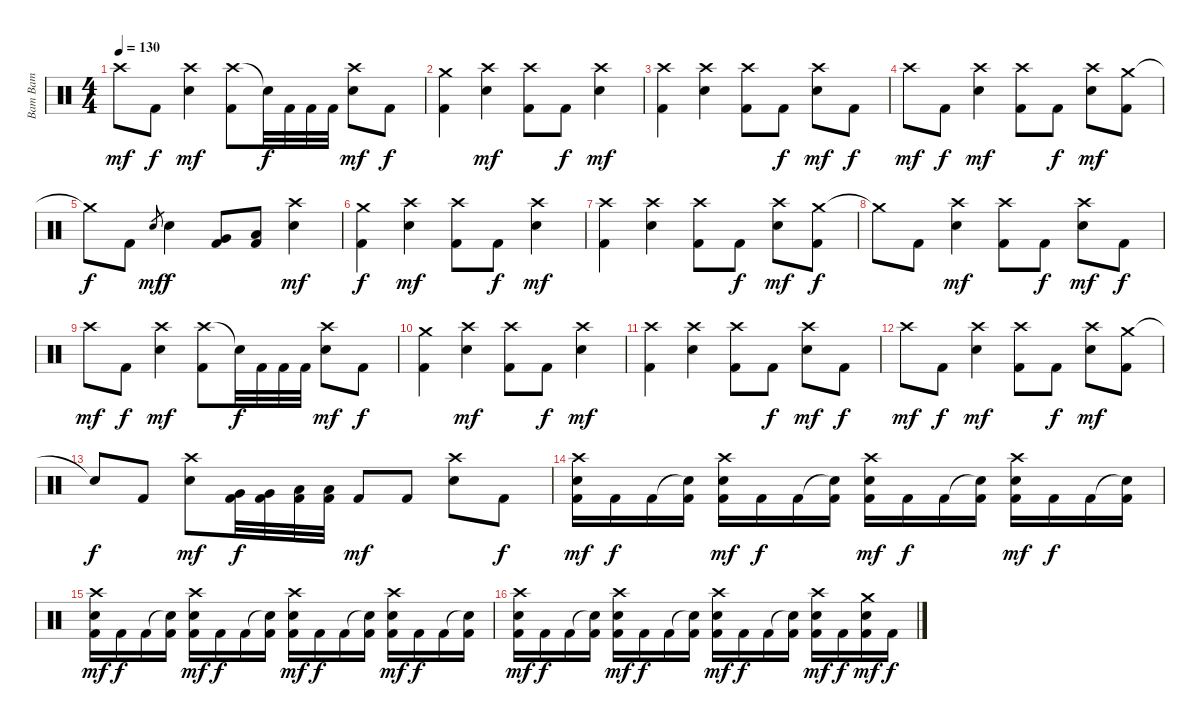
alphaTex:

\track ("Bam Bam" "Bam Bam") {instrument percussion}
\staff {score}
\articulation defaults
\ts (4 4)
\tempo 130
\clef neutral
\ks c "Crash high (hit)".8{dy mf} "Kick (hit) 2".8{dy f}
("Crash high (hit)" "Electric Snare (hit)").4{dy mf} ("Crash high (hit)" "Kick (hit) 2").8 "Snare (hit)"{t}.32{dy f} "Kick (hit) 2".32 "Kick (hit) 2".32 "Kick (hit) 2".32 ("Crash high (hit)" "Electric Snare (hit)").8{dy mf} "Kick (hit) 2".8{dy f} |
("Crash medium (hit)" "Kick (hit) 2").4 ("Crash high (hit)" "Electric Snare (hit)").4{dy mf} ("Crash high (hit)" "Kick (hit) 2").8 "Kick (hit) 2".8{dy f} ("Crash high (hit)" "Electric Snare (hit)").4{dy mf} |
("Crash high (hit)" "Kick (hit) 2").4 ("Crash high (hit)" "Electric Snare (hit)").4 ("Crash high (hit)" "Kick (hit) 2").8 "Kick (hit) 2".8{dy f} ("Crash high (hit)" "Electric Snare (hit)").8{dy mf} "Kick (hit) 2".8{dy f} |
"Crash high (hit)".8{dy mf} "Kick (hit) 2".8{dy f} ("Crash high (hit)" "Electric Snare (hit)").4{dy mf} ("Crash high (hit)" "Kick (hit) 2").8 "Kick (hit) 2".8{dy f} ("Crash high (hit)" "Electric Snare (hit)").8{dy mf} ("Crash medium (hit)" "Kick (hit) 2").8 |
"Crash medium (hit)"{t}.8{dy f} "Kick (hit) 2".8 "Electric Snare (hit)".8{gr dy mf} "Electric Snare (hit)".4{dy f} ("Very Low Tom (hit)" "Kick (hit) 2").8 ("Low Floor Tom (hit)" "Kick (hit) 2").8 ("Crash high (hit)" "Electric Snare (hit)").4{dy mf} |
("Crash medium (hit)" "Kick (hit) 2").4{dy f} ("Crash high (hit)" "Electric Snare (hit)").4{dy mf} ("Crash high (hit)" "Kick (hit) 2").8 "Kick (hit) 2".8{dy f} ("Crash high (hit)" "Electric Snare (hit)").4{dy mf} |
("Crash high (hit)" "Kick (hit) 2").4 ("Crash high (hit)" "Electric Snare (hit)").4 ("Crash high (hit)" "Kick (hit) 2").8 "Kick (hit) 2".8{dy f} ("Crash high (hit)" "Electric Snare (hit)").8{dy mf} ("Crash medium (hit)" "Kick (hit) 2").8{dy f} |
"Crash medium (hit)"{t}.8 "Kick (hit) 2".8 ("Crash high (hit)" "Electric Snare (hit)").4{dy mf} ("Crash high (hit)" "Kick (hit) 2").8 "Kick (hit) 2".8{dy f} ("Crash high (hit)" "Electric Snare (hit)").8{dy mf} "Kick (hit) 2".8{dy f} |
"Crash high (hit)".8{dy mf} "Kick (hit) 2".8{dy f} ("Crash high (hit)" "Electric Snare (hit)").4{dy mf} ("Crash high (hit)" "Kick (hit) 2").8 "Snare (hit)"{t}.32{dy f} "Kick (hit) 2".32 "Kick (hit) 2".32 "Kick (hit) 2".32 ("Crash high (hit)" "Electric Snare (hit)").8{dy mf} "Kick (hit) 2".8{dy f} |
("Crash medium (hit)" "Kick (hit) 2").4 ("Crash high (hit)" "Electric Snare (hit)").4{dy mf} ("Crash high (hit)" "Kick (hit) 2").8 "Kick (hit) 2".8{dy f} ("Crash high (hit)" "Electric Snare (hit)").4{dy mf} |
("Crash high (hit)" "Kick (hit) 2").4 ("Crash high (hit)" "Electric Snare (hit)").4 ("Crash high (hit)" "Kick (hit) 2").8 "Kick (hit) 2".8{dy f} ("Crash high (hit)" "Electric Snare (hit)").8{dy mf} "Kick (hit) 2".8{dy f} |
"Crash high (hit)".8{dy mf} "Kick (hit) 2".8{dy f} ("Crash high (hit)" "Electric Snare (hit)").4{dy mf} ("Crash high (hit)" "Kick (hit) 2").8 "Kick (hit) 2".8{dy f} ("Crash high (hit)" "Electric Snare (hit)").8{dy mf} ("Crash medium (hit)" "Kick (hit) 2").8 |
"Snare (hit)"{t}.8{dy f} "Kick (hit) 2".8 ("Crash high (hit)" "Electric Snare (hit)").8{dy mf} ("Very Low Tom (hit)" "Kick (hit) 2").32{dy f} ("Very Low Tom (hit)" "Kick (hit) 2").32 ("Low Floor Tom (hit)" "Kick (hit) 2").32 ("Low Floor Tom (hit)" "Kick (hit) 2").32 "Kick (hit) 2".8{dy mf} "Kick (hit) 2".8 ("Crash high (hit)" "Electric Snare (hit)").8 "Kick (hit) 2".8{dy f} |
("Crash high (hit)" "Electric Snare (hit)" "Kick (hit) 2").16{dy mf} "Kick (hit) 2".16{dy f} "Kick (hit) 2".16 ("Snare (hit)"{t} "Kick (hit) 2").16 ("Crash high (hit)" "Electric Snare (hit)" "Kick (hit) 2").16{dy mf} "Kick (hit) 2".16{dy f} "Kick (hit) 2".16 ("Snare (hit)"{t} "Kick (hit) 2").16 ("Crash high (hit)" "Electric Snare (hit)" "Kick (hit) 2").16{dy mf} "Kick (hit) 2".16{dy f} "Kick (hit) 2".16 ("Snare (hit)"{t} "Kick (hit) 2").16 ("Crash high (hit)" "Electric Snare (hit)" "Kick (hit) 2").16{dy mf} "Kick (hit) 2".16{dy f} "Kick (hit) 2".16 ("Snare (hit)"{t} "Kick (hit) 2").16 |
("Crash high (hit)" "Electric Snare (hit)" "Kick (hit) 2").16{dy mf} "Kick (hit) 2".16{dy f} "Kick (hit) 2".16 ("Snare (hit)"{t} "Kick (hit) 2").16 ("Crash high (hit)" "Electric Snare (hit)" "Kick (hit) 2").16{dy mf} "Kick (hit) 2".16{dy f} "Kick (hit) 2".16 ("Snare (hit)"{t} "Kick (hit) 2").16 ("Crash high (hit)" "Electric Snare (hit)" "Kick (hit) 2").16{dy mf} "Kick (hit) 2".16{dy f} "Kick (hit) 2".16 ("Snare (hit)"{t} "Kick (hit) 2").16 ("Crash high (hit)" "Electric Snare (hit)" "Kick (hit) 2").16{dy mf} "Kick (hit) 2".16{dy f} "Kick (hit) 2".16 ("Snare (hit)"{t} "Kick (hit) 2").16 |
("Crash high (hit)" "Electric Snare (hit)" "Kick (hit) 2").16{dy mf} "Kick (hit) 2".16{dy f} "Kick (hit) 2".16 ("Snare (hit)"{t} "Kick (hit) 2").16 ("Crash high (hit)" "Electric Snare (hit)" "Kick (hit) 2").16{dy mf} "Kick (hit) 2".16{dy f} "Kick (hit) 2".16 ("Snare (hit)"{t} "Kick (hit) 2").16 ("Crash high (hit)" "Electric Snare (hit)" "Kick (hit) 2").16{dy mf} "Kick (hit) 2".16{dy f} "Kick (hit) 2".16 ("Snare (hit)"{t} "Kick (hit) 2").16 ("Crash high (hit)" "Electric Snare (hit)" "Kick (hit) 2").16{dy mf} "Kick (hit) 2".16{dy f} ("Crash medium (hit)" "Electric Snare (hit)" "Kick (hit) 2").16{dy mf} "Kick (hit) 2".16{dy f}
